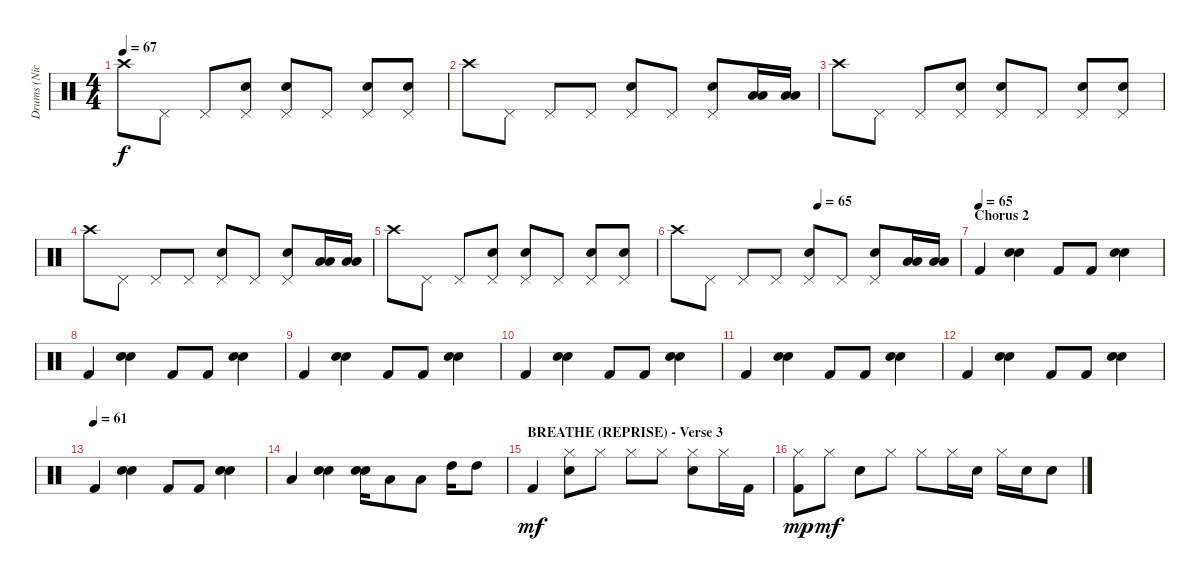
\track ("Drums (Nick)" "Drums (Nic") {instrument percussion}
\staff {score}
\articulation defaults
\ts (4 4)
\tempo 67
\clef neutral
\ks c "Crash high (hit)".8{dy f} "Pedal Hi-Hat (hit)".8 "Pedal Hi-Hat (hit)".8
("Pedal Hi-Hat (hit)" "Electric Snare (hit)").8 ("Pedal Hi-Hat (hit)" "Electric Snare (hit)").8 "Pedal Hi-Hat (hit)".8 ("Pedal Hi-Hat (hit)" "Electric Snare (hit)").8 ("Pedal Hi-Hat (hit)" "Electric Snare (hit)").8 |
"Crash high (hit)".8 "Pedal Hi-Hat (hit)".8 "Pedal Hi-Hat (hit)".8 "Pedal Hi-Hat (hit)".8 ("Pedal Hi-Hat (hit)" "Electric Snare (hit)").8 "Pedal Hi-Hat (hit)".8 ("Pedal Hi-Hat (hit)" "Electric Snare (hit)").8 ("Low Tom (hit)" "Low Tom (hit)").16 ("Low Tom (hit)" "Low Tom (hit)").16 |
"Crash high (hit)".8 "Pedal Hi-Hat (hit)".8 "Pedal Hi-Hat (hit)".8 ("Pedal Hi-Hat (hit)" "Electric Snare (hit)").8 ("Pedal Hi-Hat (hit)" "Electric Snare (hit)").8 "Pedal Hi-Hat (hit)".8 ("Pedal Hi-Hat (hit)" "Electric Snare (hit)").8 ("Pedal Hi-Hat (hit)" "Electric Snare (hit)").8 |
"Crash high (hit)".8 "Pedal Hi-Hat (hit)".8 "Pedal Hi-Hat (hit)".8 "Pedal Hi-Hat (hit)".8 ("Pedal Hi-Hat (hit)" "Electric Snare (hit)").8 "Pedal Hi-Hat (hit)".8 ("Pedal Hi-Hat (hit)" "Electric Snare (hit)").8 ("Low Tom (hit)" "Low Tom (hit)").16 ("Low Tom (hit)" "Low Tom (hit)").16 |
"Crash high (hit)".8 "Pedal Hi-Hat (hit)".8 "Pedal Hi-Hat (hit)".8 ("Pedal Hi-Hat (hit)" "Electric Snare (hit)").8 ("Pedal Hi-Hat (hit)" "Electric Snare (hit)").8 "Pedal Hi-Hat (hit)".8 ("Pedal Hi-Hat (hit)" "Electric Snare (hit)").8 ("Pedal Hi-Hat (hit)" "Electric Snare (hit)").8 |
\tempo (65 0.5)
"Crash high (hit)".8 "Pedal Hi-Hat (hit)".8 "Pedal Hi-Hat (hit)".8 "Pedal Hi-Hat (hit)".8 ("Pedal Hi-Hat (hit)" "Electric Snare (hit)").8 "Pedal Hi-Hat (hit)".8 ("Pedal Hi-Hat (hit)" "Electric Snare (hit)").8 ("Low Tom (hit)" "Low Tom (hit)").16 ("Low Tom (hit)" "Low Tom (hit)").16 |
\section ("" "Chorus 2")
\tempo (65)
"Kick (hit) 2".4 ("Snare (hit) 2" "Electric Snare (hit)").4 "Kick (hit) 2".8 "Kick (hit) 2".8 ("Snare (hit) 2" "Electric Snare (hit)").4 |
"Kick (hit) 2".4 ("Snare (hit) 2" "Electric Snare (hit)").4 "Kick (hit) 2".8 "Kick (hit) 2".8 ("Snare (hit) 2" "Electric Snare (hit)").4 |
"Kick (hit) 2".4 ("Snare (hit) 2" "Electric Snare (hit)").4 "Kick (hit) 2".8 "Kick (hit) 2".8 ("Snare (hit) 2" "Electric Snare (hit)").4 |
"Kick (hit) 2".4 ("Snare (hit) 2" "Electric Snare (hit)").4 "Kick (hit) 2".8 "Kick (hit) 2".8 ("Snare (hit) 2" "Electric Snare (hit)").4 |
"Kick (hit) 2".4 ("Snare (hit) 2" "Electric Snare (hit)").4 "Kick (hit) 2".8 "Kick (hit) 2".8 ("Snare (hit) 2" "Electric Snare (hit)").4 |
"Kick (hit) 2".4 ("Snare (hit) 2" "Electric Snare (hit)").4 "Kick (hit) 2".8 "Kick (hit) 2".8 ("Snare (hit) 2" "Electric Snare (hit)").4 |
\tempo (61)
"Kick (hit) 2".4 ("Snare (hit) 2" "Electric Snare (hit)").4 "Kick (hit) 2".8 "Kick (hit) 2".8 ("Snare (hit) 2" "Electric Snare (hit)").4 |
"Low Tom (hit)".4 ("Snare (hit) 2" "Electric Snare (hit)").4 ("Electric Snare (hit)" "Snare (hit) 2").16 "Low Tom (hit)".8 "Low Tom (hit)".8 "High Tom (hit)".16 "High Tom (hit)".8 |
\section ("" "BREATHE (REPRISE) - Verse 3")
"Kick (hit) 2".4{dy mf} ("Snare (hit) 2" "Hi-Hat (closed)").8 "Hi-Hat (closed)".8 "Hi-Hat (closed)".8 "Hi-Hat (closed)".8 ("Snare (hit) 2" "Hi-Hat (closed)").8 "Hi-Hat (closed)".16 "Kick (hit) 2".16 |
("Hi-Hat (closed)" "Kick (hit) 2").8{dy mp} "Hi-Hat (closed)".8{dy mf} "Snare (hit) 2".8 "Hi-Hat (closed)".8 "Hi-Hat (closed)".8 "Hi-Hat (closed)".16 "Snare (hit) 2".16 "Hi-Hat (closed)".16 "Snare (hit) 2".16 "Snare (hit) 2".8
